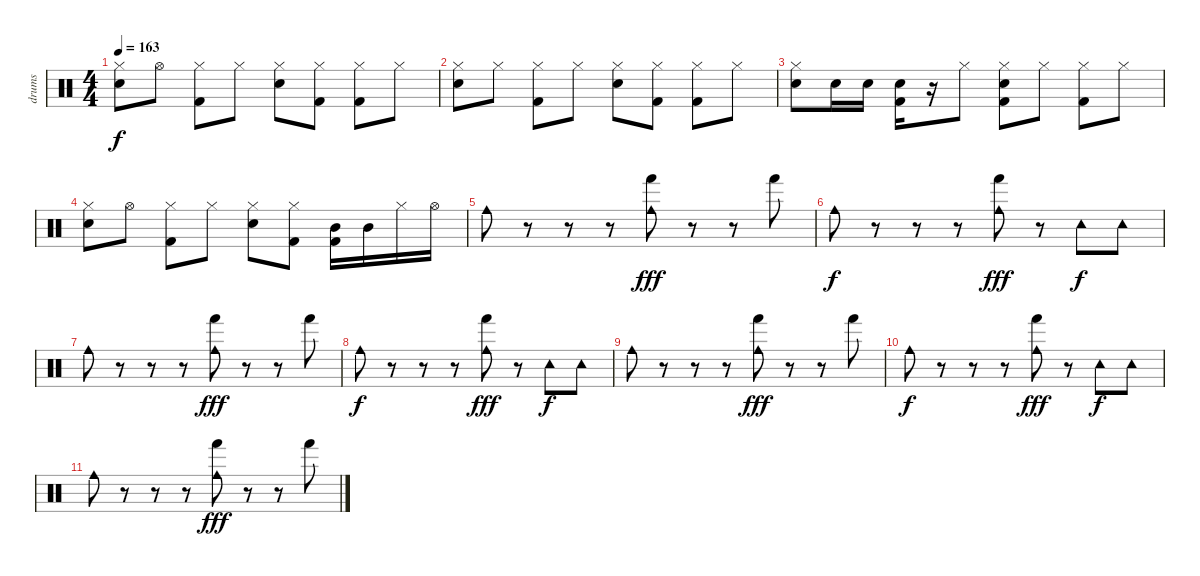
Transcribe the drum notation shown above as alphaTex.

\track ("drums" "drums") {instrument percussion}
\staff {score}
\articulation defaults
\ts (4 4)
\tempo 163
\clef neutral
\ks c
("Hi-Hat (closed)" "Electric Snare (hit)").8{dy f} "Hi-Hat (open)".8 ("Hi-Hat (closed)" "Kick (hit) 2").8 "Hi-Hat (closed)".8 ("Hi-Hat (closed)" "Electric Snare (hit)").8 ("Hi-Hat (closed)" "Kick (hit) 2").8 ("Hi-Hat (closed)" "Kick (hit) 2").8 "Hi-Hat (closed)".8 |
("Hi-Hat (closed)" "Electric Snare (hit)").8 "Hi-Hat (closed)".8 ("Hi-Hat (closed)" "Kick (hit) 2").8 "Hi-Hat (closed)".8 ("Hi-Hat (closed)" "Electric Snare (hit)").8 ("Hi-Hat (closed)" "Kick (hit) 2").8 ("Hi-Hat (closed)" "Kick (hit) 2").8 "Hi-Hat (closed)".8 |
("Hi-Hat (closed)" "Electric Snare (hit)").8 "Electric Snare (hit)".16 "Electric Snare (hit)".16 ("Electric Snare (hit)" "Kick (hit) 2").16 r.16 "Hi-Hat (closed)".8 ("Hi-Hat (closed)" "Electric Snare (hit)" "Kick (hit) 2").8 "Hi-Hat (closed)".8 ("Hi-Hat (closed)" "Kick (hit) 2").8 "Hi-Hat (closed)".8 |
("Hi-Hat (closed)" "Electric Snare (hit)").8 "Hi-Hat (open)".8 ("Hi-Hat (closed)" "Kick (hit) 2").8 "Hi-Hat (closed)".8 ("Hi-Hat (closed)" "Electric Snare (hit)").8 ("Hi-Hat (closed)" "Kick (hit) 2").8 ("Mid Tom (hit)" "Kick (hit) 2").16 "Mid Tom (hit)".16 "Hi-Hat (closed)".16 "Hi-Hat (open)".16 |
"Cowbell medium (hit)".8 r.8 r.8 r.8 ("Hand (hit)" "Cowbell medium (hit)").8{dy fff} r.8 r.8 "Hand (hit)".8 |
"Cowbell medium (hit)".8{dy f} r.8 r.8 r.8 ("Hand (hit)" "Cowbell medium (hit)").8{dy fff} r.8 "Tambourine (hit)".8{dy f} "Tambourine (hit)".8 |
"Cowbell medium (hit)".8{volume 0} r.8 r.8 r.8 ("Hand (hit)" "Cowbell medium (hit)").8{dy fff} r.8 r.8 "Hand (hit)".8 |
"Cowbell medium (hit)".8{dy f} r.8 r.8 r.8 ("Hand (hit)" "Cowbell medium (hit)").8{dy fff} r.8 "Tambourine (hit)".8{dy f} "Tambourine (hit)".8 |
"Cowbell medium (hit)".8 r.8 r.8 r.8 ("Hand (hit)" "Cowbell medium (hit)").8{dy fff} r.8 r.8 "Hand (hit)".8 |
"Cowbell medium (hit)".8{dy f} r.8 r.8 r.8 ("Hand (hit)" "Cowbell medium (hit)").8{dy fff} r.8 "Tambourine (hit)".8{dy f} "Tambourine (hit)".8 |
"Cowbell medium (hit)".8 r.8 r.8 r.8 ("Hand (hit)" "Cowbell medium (hit)").8{dy fff} r.8 r.8 "Hand (hit)".8
